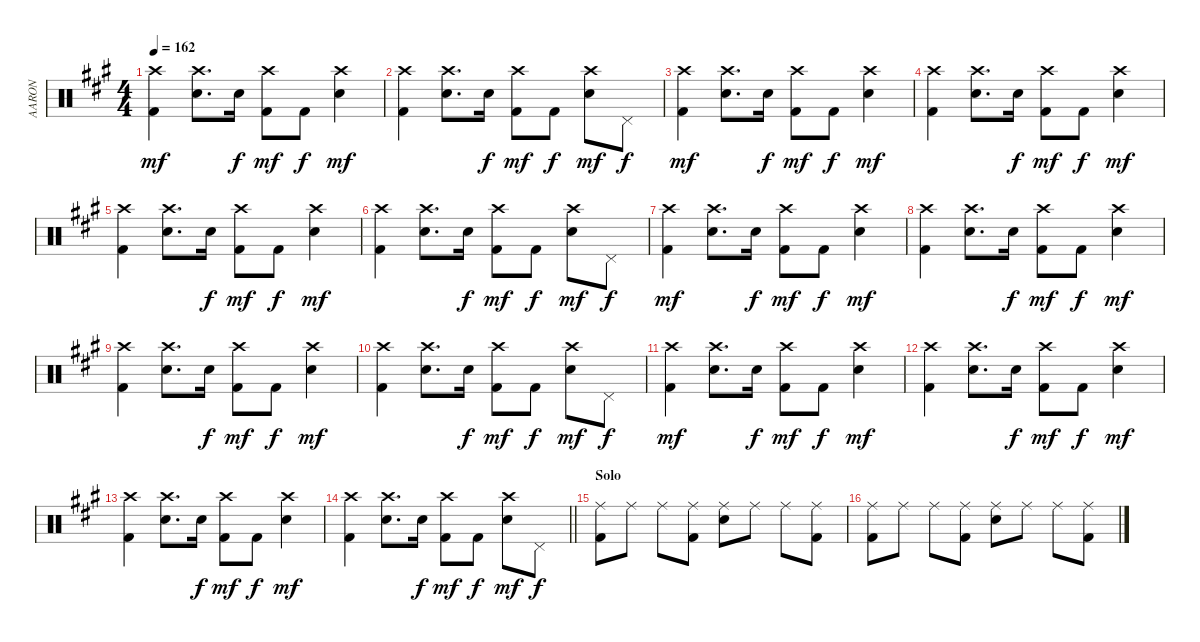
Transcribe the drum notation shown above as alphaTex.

\track ("AARON" "AARON") {instrument percussion}
\staff {score}
\articulation defaults
\ts (4 4)
\tempo 162
\clef neutral
\ks a
("Crash high (hit)" "Kick (hit) 2").4{dy mf} ("Crash high (hit)" "Electric Snare (hit)").8{d} "Electric Snare (hit)".16{dy f} ("Crash high (hit)" "Kick (hit) 2").8{dy mf} "Kick (hit) 2".8{dy f} ("Crash high (hit)" "Electric Snare (hit)").4{dy mf} |
("Crash high (hit)" "Kick (hit) 2").4 ("Crash high (hit)" "Electric Snare (hit)").8{d} "Electric Snare (hit)".16{dy f} ("Crash high (hit)" "Kick (hit) 2").8{dy mf} "Kick (hit) 2".8{dy f} ("Crash high (hit)" "Electric Snare (hit)").8{dy mf} "Pedal Hi-Hat (hit)".8{dy f} |
("Crash high (hit)" "Kick (hit) 2").4{dy mf} ("Crash high (hit)" "Electric Snare (hit)").8{d} "Electric Snare (hit)".16{dy f} ("Crash high (hit)" "Kick (hit) 2").8{dy mf} "Kick (hit) 2".8{dy f} ("Crash high (hit)" "Electric Snare (hit)").4{dy mf} |
("Crash high (hit)" "Kick (hit) 2").4 ("Crash high (hit)" "Electric Snare (hit)").8{d} "Electric Snare (hit)".16{dy f} ("Crash high (hit)" "Kick (hit) 2").8{dy mf} "Kick (hit) 2".8{dy f} ("Crash high (hit)" "Electric Snare (hit)").4{dy mf} |
("Crash high (hit)" "Kick (hit) 2").4 ("Crash high (hit)" "Electric Snare (hit)").8{d} "Electric Snare (hit)".16{dy f} ("Crash high (hit)" "Kick (hit) 2").8{dy mf} "Kick (hit) 2".8{dy f} ("Crash high (hit)" "Electric Snare (hit)").4{dy mf} |
("Crash high (hit)" "Kick (hit) 2").4 ("Crash high (hit)" "Electric Snare (hit)").8{d} "Electric Snare (hit)".16{dy f} ("Crash high (hit)" "Kick (hit) 2").8{dy mf} "Kick (hit) 2".8{dy f} ("Crash high (hit)" "Electric Snare (hit)").8{dy mf} "Pedal Hi-Hat (hit)".8{dy f} |
("Crash high (hit)" "Kick (hit) 2").4{dy mf} ("Crash high (hit)" "Electric Snare (hit)").8{d} "Electric Snare (hit)".16{dy f} ("Crash high (hit)" "Kick (hit) 2").8{dy mf} "Kick (hit) 2".8{dy f} ("Crash high (hit)" "Electric Snare (hit)").4{dy mf} |
("Crash high (hit)" "Kick (hit) 2").4 ("Crash high (hit)" "Electric Snare (hit)").8{d} "Electric Snare (hit)".16{dy f} ("Crash high (hit)" "Kick (hit) 2").8{dy mf} "Kick (hit) 2".8{dy f} ("Crash high (hit)" "Electric Snare (hit)").4{dy mf} |
("Crash high (hit)" "Kick (hit) 2").4 ("Crash high (hit)" "Electric Snare (hit)").8{d} "Electric Snare (hit)".16{dy f} ("Crash high (hit)" "Kick (hit) 2").8{dy mf} "Kick (hit) 2".8{dy f} ("Crash high (hit)" "Electric Snare (hit)").4{dy mf} |
("Crash high (hit)" "Kick (hit) 2").4 ("Crash high (hit)" "Electric Snare (hit)").8{d} "Electric Snare (hit)".16{dy f} ("Crash high (hit)" "Kick (hit) 2").8{dy mf} "Kick (hit) 2".8{dy f} ("Crash high (hit)" "Electric Snare (hit)").8{dy mf} "Pedal Hi-Hat (hit)".8{dy f} |
("Crash high (hit)" "Kick (hit) 2").4{dy mf} ("Crash high (hit)" "Electric Snare (hit)").8{d} "Electric Snare (hit)".16{dy f} ("Crash high (hit)" "Kick (hit) 2").8{dy mf} "Kick (hit) 2".8{dy f} ("Crash high (hit)" "Electric Snare (hit)").4{dy mf} |
("Crash high (hit)" "Kick (hit) 2").4 ("Crash high (hit)" "Electric Snare (hit)").8{d} "Electric Snare (hit)".16{dy f} ("Crash high (hit)" "Kick (hit) 2").8{dy mf} "Kick (hit) 2".8{dy f} ("Crash high (hit)" "Electric Snare (hit)").4{dy mf} |
("Crash high (hit)" "Kick (hit) 2").4 ("Crash high (hit)" "Electric Snare (hit)").8{d} "Electric Snare (hit)".16{dy f} ("Crash high (hit)" "Kick (hit) 2").8{dy mf} "Kick (hit) 2".8{dy f} ("Crash high (hit)" "Electric Snare (hit)").4{dy mf} |
\barLineRight lightlight
("Crash high (hit)" "Kick (hit) 2").4 ("Crash high (hit)" "Electric Snare (hit)").8{d} "Electric Snare (hit)".16{dy f} ("Crash high (hit)" "Kick (hit) 2").8{dy mf} "Kick (hit) 2".8{dy f} ("Crash high (hit)" "Electric Snare (hit)").8{dy mf} "Pedal Hi-Hat (hit)".8{dy f} |
\section ("" "Solo")
("Ride (middle)" "Kick (hit) 2").8 "Ride (middle)".8 "Ride (middle)".8 ("Ride (middle)" "Kick (hit) 2").8 ("Ride (middle)" "Electric Snare (hit)").8 "Ride (middle)".8 "Ride (middle)".8 ("Ride (middle)" "Kick (hit) 2").8 |
("Ride (middle)" "Kick (hit) 2").8 "Ride (middle)".8 "Ride (middle)".8 ("Ride (middle)" "Kick (hit) 2").8 ("Ride (middle)" "Electric Snare (hit)").8 "Ride (middle)".8 "Ride (middle)".8 ("Ride (middle)" "Kick (hit) 2").8
